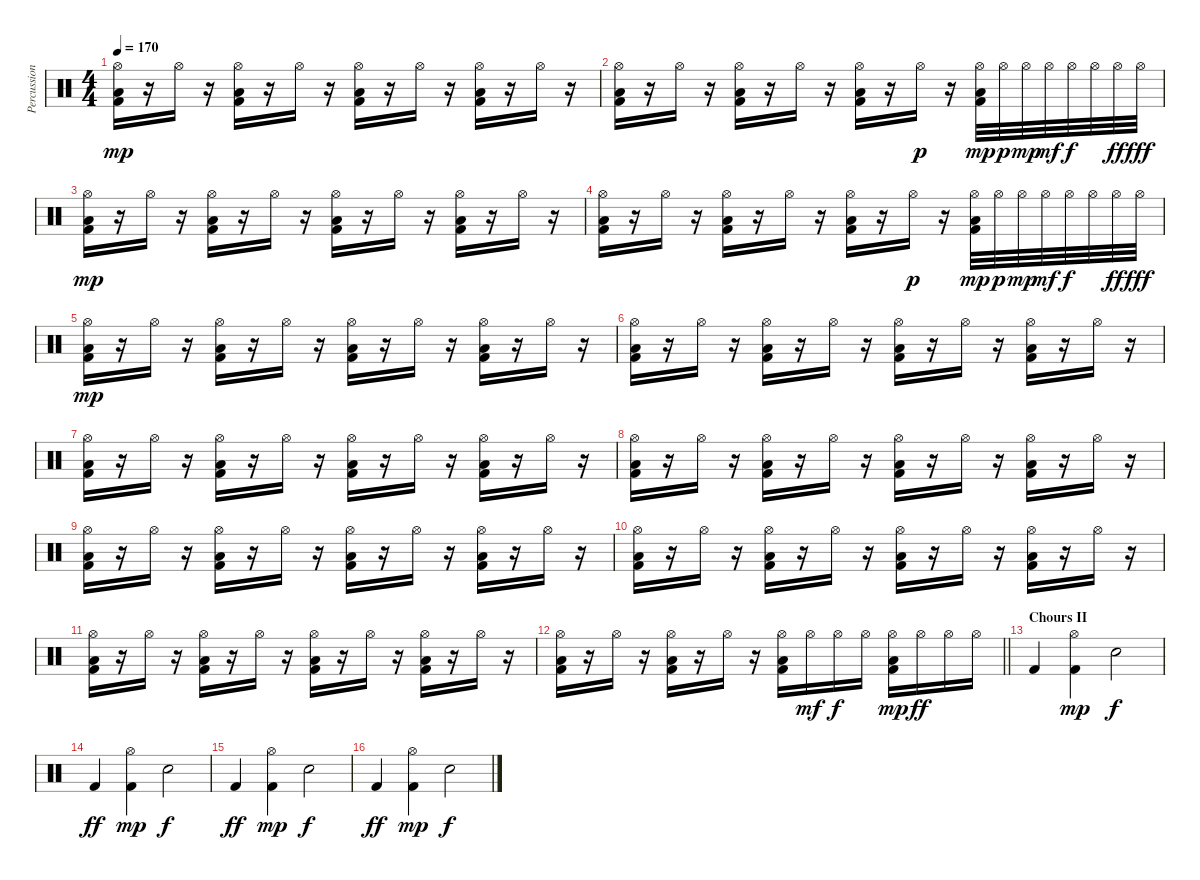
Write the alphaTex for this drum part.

\track ("Percussion" "Percussion") {instrument percussion}
\staff {score}
\articulation defaults
\ts (4 4)
\tempo 170
\clef neutral
\ks c
("Hi-Hat (open)" "Low Floor Tom (hit)" "Kick (hit) 2").16{dy mp} r.16 "Hi-Hat (open)".16 r.16 ("Hi-Hat (open)" "Low Floor Tom (hit)" "Kick (hit) 2").16 r.16 "Hi-Hat (open)".16 r.16 ("Hi-Hat (open)" "Low Floor Tom (hit)" "Kick (hit) 2").16 r.16 "Hi-Hat (open)".16 r.16 ("Hi-Hat (open)" "Low Floor Tom (hit)" "Kick (hit) 2").16 r.16 "Hi-Hat (open)".16 r.16 |
("Hi-Hat (open)" "Low Floor Tom (hit)" "Kick (hit) 2").16 r.16 "Hi-Hat (open)".16 r.16 ("Hi-Hat (open)" "Low Floor Tom (hit)" "Kick (hit) 2").16 r.16 "Hi-Hat (open)".16 r.16 ("Hi-Hat (open)" "Low Floor Tom (hit)" "Kick (hit) 2").16 r.16 "Hi-Hat (open)".16{dy p} r.16 ("Hi-Hat (open)" "Low Floor Tom (hit)" "Kick (hit) 2").32{dy mp} "Hi-Hat (open)".32{dy p} "Hi-Hat (open)".32{dy mp} "Hi-Hat (open)".32{dy mf} "Hi-Hat (open)".32{dy f} "Hi-Hat (open)".32 "Hi-Hat (open)".32{dy ff} "Hi-Hat (open)".32{dy fff} |
("Hi-Hat (open)" "Low Floor Tom (hit)" "Kick (hit) 2").16{dy mp} r.16 "Hi-Hat (open)".16 r.16 ("Hi-Hat (open)" "Low Floor Tom (hit)" "Kick (hit) 2").16 r.16 "Hi-Hat (open)".16 r.16 ("Hi-Hat (open)" "Low Floor Tom (hit)" "Kick (hit) 2").16 r.16 "Hi-Hat (open)".16 r.16 ("Hi-Hat (open)" "Low Floor Tom (hit)" "Kick (hit) 2").16 r.16 "Hi-Hat (open)".16 r.16 |
("Hi-Hat (open)" "Low Floor Tom (hit)" "Kick (hit) 2").16 r.16 "Hi-Hat (open)".16 r.16 ("Hi-Hat (open)" "Low Floor Tom (hit)" "Kick (hit) 2").16 r.16 "Hi-Hat (open)".16 r.16 ("Hi-Hat (open)" "Low Floor Tom (hit)" "Kick (hit) 2").16 r.16 "Hi-Hat (open)".16{dy p} r.16 ("Hi-Hat (open)" "Low Floor Tom (hit)" "Kick (hit) 2").32{dy mp} "Hi-Hat (open)".32{dy p} "Hi-Hat (open)".32{dy mp} "Hi-Hat (open)".32{dy mf} "Hi-Hat (open)".32{dy f} "Hi-Hat (open)".32 "Hi-Hat (open)".32{dy ff} "Hi-Hat (open)".32{dy fff} |
("Hi-Hat (open)" "Low Floor Tom (hit)" "Kick (hit) 2").16{dy mp} r.16 "Hi-Hat (open)".16 r.16 ("Hi-Hat (open)" "Low Floor Tom (hit)" "Kick (hit) 2").16 r.16 "Hi-Hat (open)".16 r.16 ("Hi-Hat (open)" "Low Floor Tom (hit)" "Kick (hit) 2").16 r.16 "Hi-Hat (open)".16 r.16 ("Hi-Hat (open)" "Low Floor Tom (hit)" "Kick (hit) 2").16 r.16 "Hi-Hat (open)".16 r.16 |
("Hi-Hat (open)" "Low Floor Tom (hit)" "Kick (hit) 2").16 r.16 "Hi-Hat (open)".16 r.16 ("Hi-Hat (open)" "Low Floor Tom (hit)" "Kick (hit) 2").16 r.16 "Hi-Hat (open)".16 r.16 ("Hi-Hat (open)" "Low Floor Tom (hit)" "Kick (hit) 2").16 r.16 "Hi-Hat (open)".16 r.16 ("Hi-Hat (open)" "Low Floor Tom (hit)" "Kick (hit) 2").16 r.16 "Hi-Hat (open)".16 r.16 |
("Hi-Hat (open)" "Low Floor Tom (hit)" "Kick (hit) 2").16 r.16 "Hi-Hat (open)".16 r.16 ("Hi-Hat (open)" "Low Floor Tom (hit)" "Kick (hit) 2").16 r.16 "Hi-Hat (open)".16 r.16 ("Hi-Hat (open)" "Low Floor Tom (hit)" "Kick (hit) 2").16 r.16 "Hi-Hat (open)".16 r.16 ("Hi-Hat (open)" "Low Floor Tom (hit)" "Kick (hit) 2").16 r.16 "Hi-Hat (open)".16 r.16 |
("Hi-Hat (open)" "Low Floor Tom (hit)" "Kick (hit) 2").16 r.16 "Hi-Hat (open)".16 r.16 ("Hi-Hat (open)" "Low Floor Tom (hit)" "Kick (hit) 2").16 r.16 "Hi-Hat (open)".16 r.16 ("Hi-Hat (open)" "Low Floor Tom (hit)" "Kick (hit) 2").16 r.16 "Hi-Hat (open)".16 r.16 ("Hi-Hat (open)" "Low Floor Tom (hit)" "Kick (hit) 2").16 r.16 "Hi-Hat (open)".16 r.16 |
("Hi-Hat (open)" "Low Floor Tom (hit)" "Kick (hit) 2").16 r.16 "Hi-Hat (open)".16 r.16 ("Hi-Hat (open)" "Low Floor Tom (hit)" "Kick (hit) 2").16 r.16 "Hi-Hat (open)".16 r.16 ("Hi-Hat (open)" "Low Floor Tom (hit)" "Kick (hit) 2").16 r.16 "Hi-Hat (open)".16 r.16 ("Hi-Hat (open)" "Low Floor Tom (hit)" "Kick (hit) 2").16 r.16 "Hi-Hat (open)".16 r.16 |
("Hi-Hat (open)" "Low Floor Tom (hit)" "Kick (hit) 2").16 r.16 "Hi-Hat (open)".16 r.16 ("Hi-Hat (open)" "Low Floor Tom (hit)" "Kick (hit) 2").16 r.16 "Hi-Hat (open)".16 r.16 ("Hi-Hat (open)" "Low Floor Tom (hit)" "Kick (hit) 2").16 r.16 "Hi-Hat (open)".16 r.16 ("Hi-Hat (open)" "Low Floor Tom (hit)" "Kick (hit) 2").16 r.16 "Hi-Hat (open)".16 r.16 |
("Hi-Hat (open)" "Low Floor Tom (hit)" "Kick (hit) 2").16 r.16 "Hi-Hat (open)".16 r.16 ("Hi-Hat (open)" "Low Floor Tom (hit)" "Kick (hit) 2").16 r.16 "Hi-Hat (open)".16 r.16 ("Hi-Hat (open)" "Low Floor Tom (hit)" "Kick (hit) 2").16 r.16 "Hi-Hat (open)".16 r.16 ("Hi-Hat (open)" "Low Floor Tom (hit)" "Kick (hit) 2").16 r.16 "Hi-Hat (open)".16 r.16 |
\barLineRight lightlight
("Hi-Hat (open)" "Low Floor Tom (hit)" "Kick (hit) 2").16 r.16 "Hi-Hat (open)".16 r.16 ("Hi-Hat (open)" "Low Floor Tom (hit)" "Kick (hit) 2").16 r.16 "Hi-Hat (open)".16 r.16 ("Hi-Hat (open)" "Low Floor Tom (hit)" "Kick (hit) 2").16 "Hi-Hat (open)".16{dy mf} "Hi-Hat (open)".16{dy f} "Hi-Hat (open)".16 ("Hi-Hat (open)" "Low Floor Tom (hit)" "Kick (hit) 2").16{dy mp} "Hi-Hat (open)".16{dy ff} "Hi-Hat (open)".16 "Hi-Hat (open)".16 |
\section ("" "Chours II")
"Kick (hit) 2".4 ("Hi-Hat (open)" "Kick (hit) 2").4{dy mp} "Electric Snare (hit)".2{dy f} |
"Kick (hit) 2".4{dy ff} ("Hi-Hat (open)" "Kick (hit) 2").4{dy mp} "Electric Snare (hit)".2{dy f} |
"Kick (hit) 2".4{dy ff} ("Hi-Hat (open)" "Kick (hit) 2").4{dy mp} "Electric Snare (hit)".2{dy f} |
"Kick (hit) 2".4{dy ff} ("Hi-Hat (open)" "Kick (hit) 2").4{dy mp} "Electric Snare (hit)".2{dy f}
